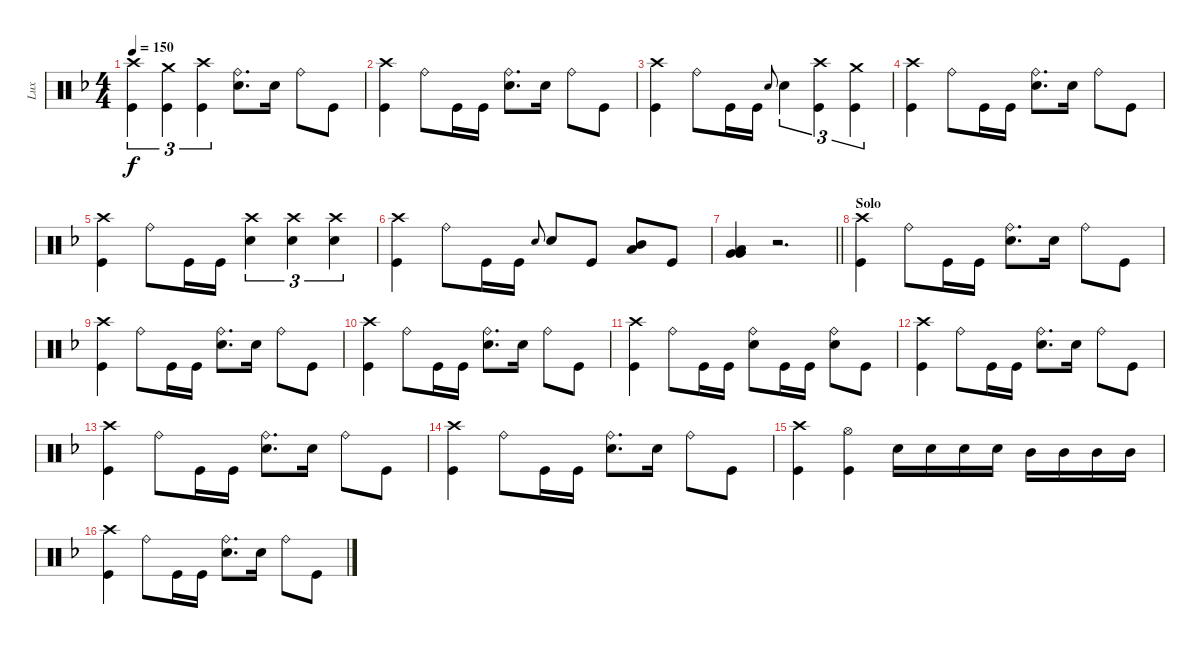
\track ("Lux" "Lux") {instrument percussion}
\staff {score}
\articulation defaults
\ts (4 4)
\tempo 150
\clef neutral
\ks dminor
("Crash high (hit)" "Kick (hit)").4{tu (3 2) dy f} ("Crash medium (hit)" "Kick (hit)").4{tu (3 2)} ("Crash high (hit)" "Kick (hit)").4{tu (3 2)} ("Ride (bell)" "Snare (hit) 2").8{d} "Snare (hit) 2".16 "Ride (bell)".8 "Kick (hit)".8 |
("Crash high (hit)" "Kick (hit)").4 "Ride (bell)".8 "Kick (hit)".16 "Kick (hit)".16 ("Ride (bell)" "Snare (hit) 2").8{d} "Snare (hit) 2".16 "Ride (bell)".8 "Kick (hit)".8 |
("Crash high (hit)" "Kick (hit)").4 "Ride (bell)".8 "Kick (hit)".16 "Kick (hit)".16 "Snare (hit) 2".8{gr onbeat} "Snare (hit) 2".4{tu (3 2)} ("Crash high (hit)" "Kick (hit)").4{tu (3 2)} ("Crash medium (hit)" "Kick (hit)").4{tu (3 2)} |
("Crash high (hit)" "Kick (hit)").4 "Ride (bell)".8 "Kick (hit)".16 "Kick (hit)".16 ("Ride (bell)" "Snare (hit) 2").8{d} "Snare (hit) 2".16 "Ride (bell)".8 "Kick (hit)".8 |
("Crash high (hit)" "Kick (hit)").4 "Ride (bell)".8 "Kick (hit)".16 "Kick (hit)".16 ("Crash high (hit)" "Snare (hit) 2").4{tu (3 2)} ("Crash high (hit)" "Snare (hit) 2").4{tu (3 2)} ("Crash high (hit)" "Snare (hit) 2").4{tu (3 2)} |
("Crash high (hit)" "Kick (hit)").4 "Ride (bell)".8 "Kick (hit)".16 "Kick (hit)".16 "Snare (hit) 2".8{gr onbeat} "Snare (hit) 2".8 "Kick (hit)".8 ("Mid Tom (hit)" "Low Tom (hit)").8 "Kick (hit)".8 |
\barLineRight lightlight
("Very Low Tom (hit)" "Very Low Tom (hit)" "Low Tom (hit)").4 r.2{d} |
\section ("" "Solo")
("Crash high (hit)" "Kick (hit)").4 "Ride (bell)".8 "Kick (hit)".16 "Kick (hit)".16 ("Ride (bell)" "Snare (hit) 2").8{d} "Snare (hit) 2".16 "Ride (bell)".8 "Kick (hit)".8 |
("Crash high (hit)" "Kick (hit)").4 "Ride (bell)".8 "Kick (hit)".16 "Kick (hit)".16 ("Ride (bell)" "Snare (hit) 2").8{d} "Snare (hit) 2".16 "Ride (bell)".8 "Kick (hit)".8 |
("Crash high (hit)" "Kick (hit)").4 "Ride (bell)".8 "Kick (hit)".16 "Kick (hit)".16 ("Ride (bell)" "Snare (hit) 2").8{d} "Snare (hit) 2".16 "Ride (bell)".8 "Kick (hit)".8 |
("Crash high (hit)" "Kick (hit)").4 "Ride (bell)".8 "Kick (hit)".16 "Kick (hit)".16 ("Ride (bell)" "Snare (hit) 2").8 "Kick (hit)".16 "Kick (hit)".16 ("Ride (bell)" "Snare (hit) 2").8 "Kick (hit)".8 |
("Crash high (hit)" "Kick (hit)").4 "Ride (bell)".8 "Kick (hit)".16 "Kick (hit)".16 ("Ride (bell)" "Snare (hit) 2").8{d} "Snare (hit) 2".16 "Ride (bell)".8 "Kick (hit)".8 |
("Crash high (hit)" "Kick (hit)").4 "Ride (bell)".8 "Kick (hit)".16 "Kick (hit)".16 ("Ride (bell)" "Snare (hit) 2").8{d} "Snare (hit) 2".16 "Ride (bell)".8 "Kick (hit)".8 |
("Crash high (hit)" "Kick (hit)").4 "Ride (bell)".8 "Kick (hit)".16 "Kick (hit)".16 ("Ride (bell)" "Snare (hit) 2").8{d} "Snare (hit) 2".16 "Ride (bell)".8 "Kick (hit)".8 |
("Crash high (hit)" "Kick (hit)").4 ("Hi-Hat (open)" "Kick (hit)").4 "Snare (hit) 2".16 "Snare (hit) 2".16 "Snare (hit) 2".16 "Snare (hit) 2".16 "Mid Tom (hit)".16 "Mid Tom (hit)".16 "Mid Tom (hit)".16 "Mid Tom (hit)".16 |
("Crash high (hit)" "Kick (hit)").4 "Ride (bell)".8 "Kick (hit)".16 "Kick (hit)".16 ("Ride (bell)" "Snare (hit) 2").8{d} "Snare (hit) 2".16 "Ride (bell)".8 "Kick (hit)".8
